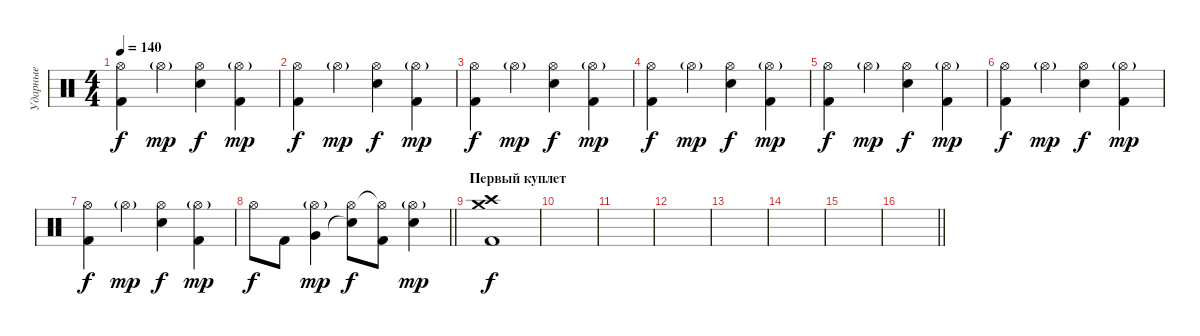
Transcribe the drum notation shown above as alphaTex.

\track ("Ударные" "Ударные") {instrument percussion}
\staff {score}
\articulation defaults
\ts (4 4)
\tempo 140
\clef neutral
\ks c
("Hi-Hat (open)" "Kick (hit) 2").4{dy f} "Hi-Hat (open)"{g}.4{dy mp} ("Hi-Hat (open)" "Electric Snare (hit)").4{dy f} ("Hi-Hat (open)"{g} "Kick (hit) 2").4{dy mp} |
("Hi-Hat (open)" "Kick (hit) 2").4{dy f} "Hi-Hat (open)"{g}.4{dy mp} ("Hi-Hat (open)" "Electric Snare (hit)").4{dy f} ("Hi-Hat (open)"{g} "Kick (hit) 2").4{dy mp} |
("Hi-Hat (open)" "Kick (hit) 2").4{dy f} "Hi-Hat (open)"{g}.4{dy mp} ("Hi-Hat (open)" "Electric Snare (hit)").4{dy f} ("Hi-Hat (open)"{g} "Kick (hit) 2").4{dy mp} |
("Hi-Hat (open)" "Kick (hit) 2").4{dy f} "Hi-Hat (open)"{g}.4{dy mp} ("Hi-Hat (open)" "Electric Snare (hit)").4{dy f} ("Hi-Hat (open)"{g} "Kick (hit) 2").4{dy mp} |
("Hi-Hat (open)" "Kick (hit) 2").4{dy f} "Hi-Hat (open)"{g}.4{dy mp} ("Hi-Hat (open)" "Electric Snare (hit)").4{dy f} ("Hi-Hat (open)"{g} "Kick (hit) 2").4{dy mp} |
("Hi-Hat (open)" "Kick (hit) 2").4{dy f} "Hi-Hat (open)"{g}.4{dy mp} ("Hi-Hat (open)" "Electric Snare (hit)").4{dy f} ("Hi-Hat (open)"{g} "Kick (hit) 2").4{dy mp} |
("Hi-Hat (open)" "Kick (hit) 2").4{dy f} "Hi-Hat (open)"{g}.4{dy mp} ("Hi-Hat (open)" "Electric Snare (hit)").4{dy f} ("Hi-Hat (open)"{g} "Kick (hit) 2").4{dy mp} |
\barLineRight lightlight "Hi-Hat (open)".8{dy f} "Kick (hit) 2".8
("Hi-Hat (open)"{g} "Very Low Tom (hit)").4{dy mp} ("Hi-Hat (open)" "Snare (hit)"{t}).8{dy f} ("Hi-Hat (open)"{t} "Kick (hit) 2").8 ("Hi-Hat (open)"{g} "Electric Snare (hit)").4{dy mp} |
\section ("" "Первый куплет")
("Crash high (hit)" "Crash medium (hit)" "Kick (hit) 2").1{dy f} |
|
|
|
|
|
|
\barLineRight lightlight
